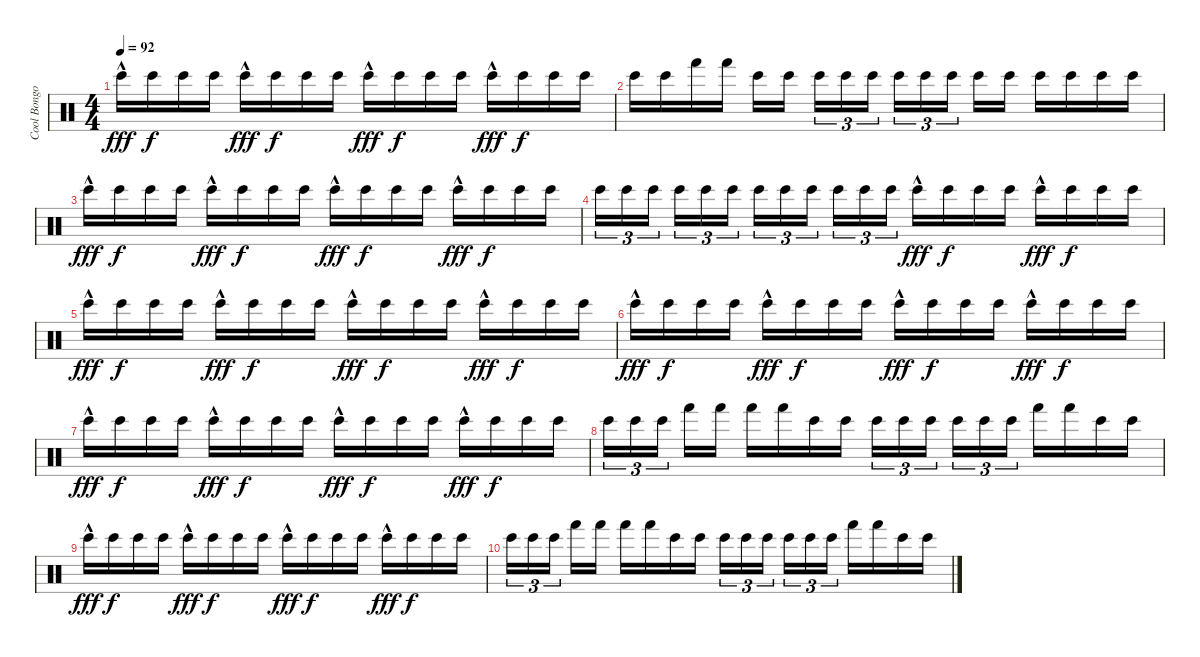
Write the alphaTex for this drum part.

\track ("Cool Bongo Background" "Cool Bongo") {instrument percussion}
\staff {score}
\articulation defaults
\ts (4 4)
\tempo 92
\clef neutral
\ks c "Bongo High (hit)"{hac}.16{dy fff} "Bongo High (hit)".16{dy f} "Bongo High (hit)".16 "Bongo High (hit)".16 "Bongo High (hit)"{hac}.16{dy fff} "Bongo High (hit)".16{dy f} "Bongo High (hit)".16 "Bongo High (hit)".16 "Bongo High (hit)"{hac}.16{dy fff} "Bongo High (hit)".16{dy f} "Bongo High (hit)".16 "Bongo High (hit)".16 "Bongo High (hit)"{hac}.16{dy fff} "Bongo High (hit)".16{dy f} "Bongo High (hit)".16 "Bongo High (hit)".16
|
"Bongo High (hit)".16 "Bongo High (hit)".16 "Hand (hit)".16 "Hand (hit)".16 "Bongo High (hit)".16 "Bongo High (hit)".16{beam splitsecondary} "Bongo High (hit)".16{tu (3 2)} "Bongo High (hit)".16{tu (3 2)} "Bongo High (hit)".16{tu (3 2)} "Bongo High (hit)".16{tu (3 2)} "Bongo High (hit)".16{tu (3 2)} "Bongo High (hit)".16{tu (3 2) beam splitsecondary} "Bongo High (hit)".16 "Bongo High (hit)".16 "Bongo High (hit)".16 "Bongo High (hit)".16 "Bongo High (hit)".16 "Bongo High (hit)".16 |
"Bongo High (hit)"{hac}.16{dy fff} "Bongo High (hit)".16{dy f} "Bongo High (hit)".16 "Bongo High (hit)".16 "Bongo High (hit)"{hac}.16{dy fff} "Bongo High (hit)".16{dy f} "Bongo High (hit)".16 "Bongo High (hit)".16 "Bongo High (hit)"{hac}.16{dy fff} "Bongo High (hit)".16{dy f} "Bongo High (hit)".16 "Bongo High (hit)".16 "Bongo High (hit)"{hac}.16{dy fff} "Bongo High (hit)".16{dy f} "Bongo High (hit)".16 "Bongo High (hit)".16 |
"Bongo High (hit)".16{tu (3 2)} "Bongo High (hit)".16{tu (3 2)} "Bongo High (hit)".16{tu (3 2) beam splitsecondary} "Bongo High (hit)".16{tu (3 2)} "Bongo High (hit)".16{tu (3 2)} "Bongo High (hit)".16{tu (3 2)} "Bongo High (hit)".16{tu (3 2)} "Bongo High (hit)".16{tu (3 2)} "Bongo High (hit)".16{tu (3 2) beam splitsecondary} "Bongo High (hit)".16{tu (3 2)} "Bongo High (hit)".16{tu (3 2)} "Bongo High (hit)".16{tu (3 2)} "Bongo High (hit)"{hac}.16{dy fff} "Bongo High (hit)".16{dy f} "Bongo High (hit)".16 "Bongo High (hit)".16 "Bongo High (hit)"{hac}.16{dy fff} "Bongo High (hit)".16{dy f} "Bongo High (hit)".16 "Bongo High (hit)".16 |
"Bongo High (hit)"{hac}.16{dy fff} "Bongo High (hit)".16{dy f} "Bongo High (hit)".16 "Bongo High (hit)".16 "Bongo High (hit)"{hac}.16{dy fff} "Bongo High (hit)".16{dy f} "Bongo High (hit)".16 "Bongo High (hit)".16 "Bongo High (hit)"{hac}.16{dy fff} "Bongo High (hit)".16{dy f} "Bongo High (hit)".16 "Bongo High (hit)".16 "Bongo High (hit)"{hac}.16{dy fff} "Bongo High (hit)".16{dy f} "Bongo High (hit)".16 "Bongo High (hit)".16 |
"Bongo High (hit)"{hac}.16{dy fff} "Bongo High (hit)".16{dy f} "Bongo High (hit)".16 "Bongo High (hit)".16 "Bongo High (hit)"{hac}.16{dy fff} "Bongo High (hit)".16{dy f} "Bongo High (hit)".16 "Bongo High (hit)".16 "Bongo High (hit)"{hac}.16{dy fff} "Bongo High (hit)".16{dy f} "Bongo High (hit)".16 "Bongo High (hit)".16 "Bongo High (hit)"{hac}.16{dy fff} "Bongo High (hit)".16{dy f} "Bongo High (hit)".16 "Bongo High (hit)".16 |
"Bongo High (hit)"{hac}.16{dy fff} "Bongo High (hit)".16{dy f} "Bongo High (hit)".16 "Bongo High (hit)".16 "Bongo High (hit)"{hac}.16{dy fff} "Bongo High (hit)".16{dy f} "Bongo High (hit)".16 "Bongo High (hit)".16 "Bongo High (hit)"{hac}.16{dy fff} "Bongo High (hit)".16{dy f} "Bongo High (hit)".16 "Bongo High (hit)".16 "Bongo High (hit)"{hac}.16{dy fff} "Bongo High (hit)".16{dy f} "Bongo High (hit)".16 "Bongo High (hit)".16 |
"Bongo High (hit)".16{tu (3 2)} "Bongo High (hit)".16{tu (3 2)} "Bongo High (hit)".16{tu (3 2) beam splitsecondary} "Hand (hit)".16 "Hand (hit)".16 "Hand (hit)".16 "Hand (hit)".16 "Bongo High (hit)".16 "Bongo High (hit)".16 "Bongo High (hit)".16{tu (3 2)} "Bongo High (hit)".16{tu (3 2)} "Bongo High (hit)".16{tu (3 2) beam splitsecondary} "Bongo High (hit)".16{tu (3 2)} "Bongo High (hit)".16{tu (3 2)} "Bongo High (hit)".16{tu (3 2)} "Hand (hit)".16 "Hand (hit)".16 "Bongo High (hit)".16 "Bongo High (hit)".16 |
"Bongo High (hit)"{hac}.16{dy fff} "Bongo High (hit)".16{dy f} "Bongo High (hit)".16 "Bongo High (hit)".16 "Bongo High (hit)"{hac}.16{dy fff} "Bongo High (hit)".16{dy f} "Bongo High (hit)".16 "Bongo High (hit)".16 "Bongo High (hit)"{hac}.16{dy fff} "Bongo High (hit)".16{dy f} "Bongo High (hit)".16 "Bongo High (hit)".16 "Bongo High (hit)"{hac}.16{dy fff} "Bongo High (hit)".16{dy f} "Bongo High (hit)".16 "Bongo High (hit)".16 |
"Bongo High (hit)".16{tu (3 2)} "Bongo High (hit)".16{tu (3 2)} "Bongo High (hit)".16{tu (3 2) beam splitsecondary} "Hand (hit)".16 "Hand (hit)".16 "Hand (hit)".16 "Hand (hit)".16 "Bongo High (hit)".16 "Bongo High (hit)".16 "Bongo High (hit)".16{tu (3 2)} "Bongo High (hit)".16{tu (3 2)} "Bongo High (hit)".16{tu (3 2) beam splitsecondary} "Bongo High (hit)".16{tu (3 2)} "Bongo High (hit)".16{tu (3 2)} "Bongo High (hit)".16{tu (3 2)} "Hand (hit)".16 "Hand (hit)".16 "Bongo High (hit)".16 "Bongo High (hit)".16
